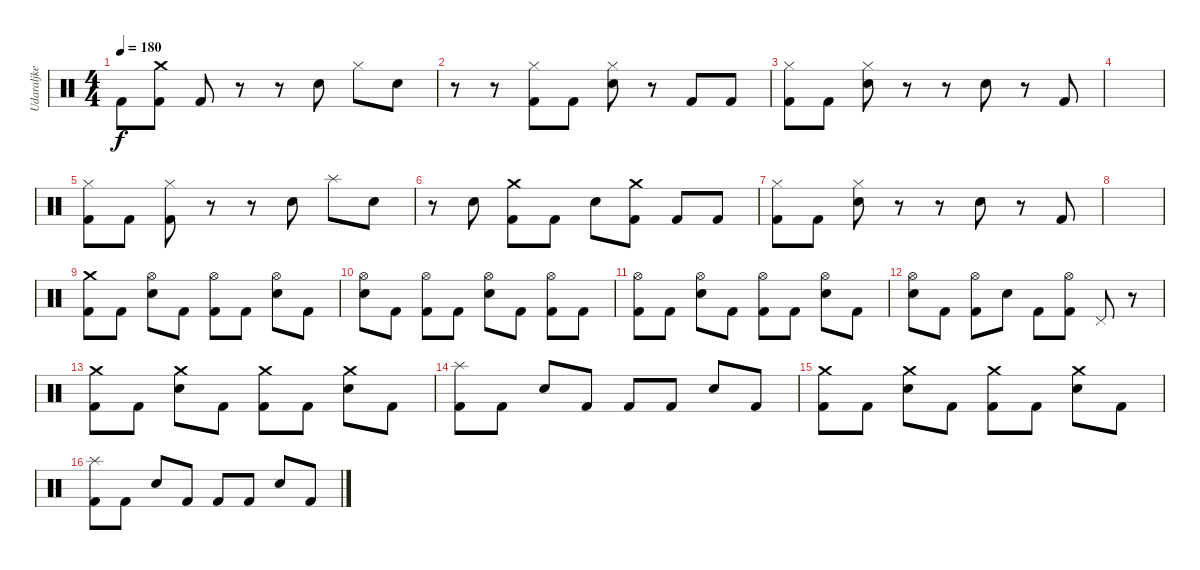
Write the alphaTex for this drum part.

\track ("Udaraljke" "Udaraljke") {instrument percussion}
\staff {score}
\articulation defaults
\ts (4 4)
\tempo 180
\clef neutral
\ks c "Kick (hit) 2".8{dy f}
("Kick (hit) 2" "Crash medium (hit)").8 "Kick (hit) 2".8 r.8 r.8 "Snare (hit) 2".8 "Hi-Hat (closed)".8 "Snare (hit) 2".8 |
r.8 r.8 ("Kick (hit) 2" "Hi-Hat (closed)").8 "Kick (hit) 2".8 ("Snare (hit) 2" "Hi-Hat (closed)").8 r.8 "Kick (hit) 2".8 "Kick (hit) 2".8 |
("Kick (hit) 2" "Hi-Hat (closed)").8 "Kick (hit) 2".8 ("Snare (hit) 2" "Hi-Hat (closed)").8 r.8 r.8 "Snare (hit) 2".8 r.8 "Kick (hit) 2".8 |
|
("Kick (hit) 2" "Hi-Hat (closed)").8 "Kick (hit) 2".8 ("Kick (hit) 2" "Hi-Hat (closed)").8 r.8 r.8 "Snare (hit) 2".8 "Splash (hit)".8 "Snare (hit) 2".8 |
r.8 "Snare (hit) 2".8 ("Kick (hit) 2" "Crash medium (hit)").8 "Kick (hit) 2".8 "Snare (hit) 2".8 ("Kick (hit) 2" "Crash medium (hit)").8 "Kick (hit) 2".8 "Kick (hit) 2".8 |
("Kick (hit) 2" "Hi-Hat (closed)").8 "Kick (hit) 2".8 ("Snare (hit) 2" "Hi-Hat (closed)").8 r.8 r.8 "Snare (hit) 2".8 r.8 "Kick (hit) 2".8 |
|
("Kick (hit) 2" "Crash medium (hit)").8 "Kick (hit) 2".8 ("Snare (hit) 2" "Hi-Hat (open)").8 "Kick (hit) 2".8 ("Kick (hit) 2" "Hi-Hat (open)").8 "Kick (hit) 2".8 ("Snare (hit) 2" "Hi-Hat (open)").8 "Kick (hit) 2".8 |
("Snare (hit) 2" "Hi-Hat (open)").8 "Kick (hit) 2".8 ("Kick (hit) 2" "Hi-Hat (open)").8 "Kick (hit) 2".8 ("Snare (hit) 2" "Hi-Hat (open)").8 "Kick (hit) 2".8 ("Kick (hit) 2" "Hi-Hat (open)").8 "Kick (hit) 2".8 |
("Kick (hit) 2" "Hi-Hat (open)").8 "Kick (hit) 2".8 ("Snare (hit) 2" "Hi-Hat (open)").8 "Kick (hit) 2".8 ("Kick (hit) 2" "Hi-Hat (open)").8 "Kick (hit) 2".8 ("Snare (hit) 2" "Hi-Hat (open)").8 "Kick (hit) 2".8 |
("Snare (hit) 2" "Hi-Hat (open)").8 "Kick (hit) 2".8 ("Kick (hit) 2" "Hi-Hat (open)").8 "Snare (hit) 2".8 "Kick (hit) 2".8 ("Kick (hit) 2" "Hi-Hat (open)").8 "Pedal Hi-Hat (hit)".8 r.8 |
("Kick (hit) 2" "Crash medium (hit)").8 "Kick (hit) 2".8 ("Snare (hit) 2" "Crash medium (hit)").8 "Kick (hit) 2".8 ("Kick (hit) 2" "Crash medium (hit)").8 "Kick (hit) 2".8 ("Snare (hit) 2" "Crash medium (hit)").8 "Kick (hit) 2".8 |
("Kick (hit) 2" "Splash (hit)").8 "Kick (hit) 2".8 "Snare (hit) 2".8 "Kick (hit) 2".8 "Kick (hit) 2".8 "Kick (hit) 2".8 "Snare (hit) 2".8 "Kick (hit) 2".8 |
("Kick (hit) 2" "Crash medium (hit)").8 "Kick (hit) 2".8 ("Snare (hit) 2" "Crash medium (hit)").8 "Kick (hit) 2".8 ("Kick (hit) 2" "Crash medium (hit)").8 "Kick (hit) 2".8 ("Snare (hit) 2" "Crash medium (hit)").8 "Kick (hit) 2".8 |
("Kick (hit) 2" "Splash (hit)").8 "Kick (hit) 2".8 "Snare (hit) 2".8 "Kick (hit) 2".8 "Kick (hit) 2".8 "Kick (hit) 2".8 "Snare (hit) 2".8 "Kick (hit) 2".8
